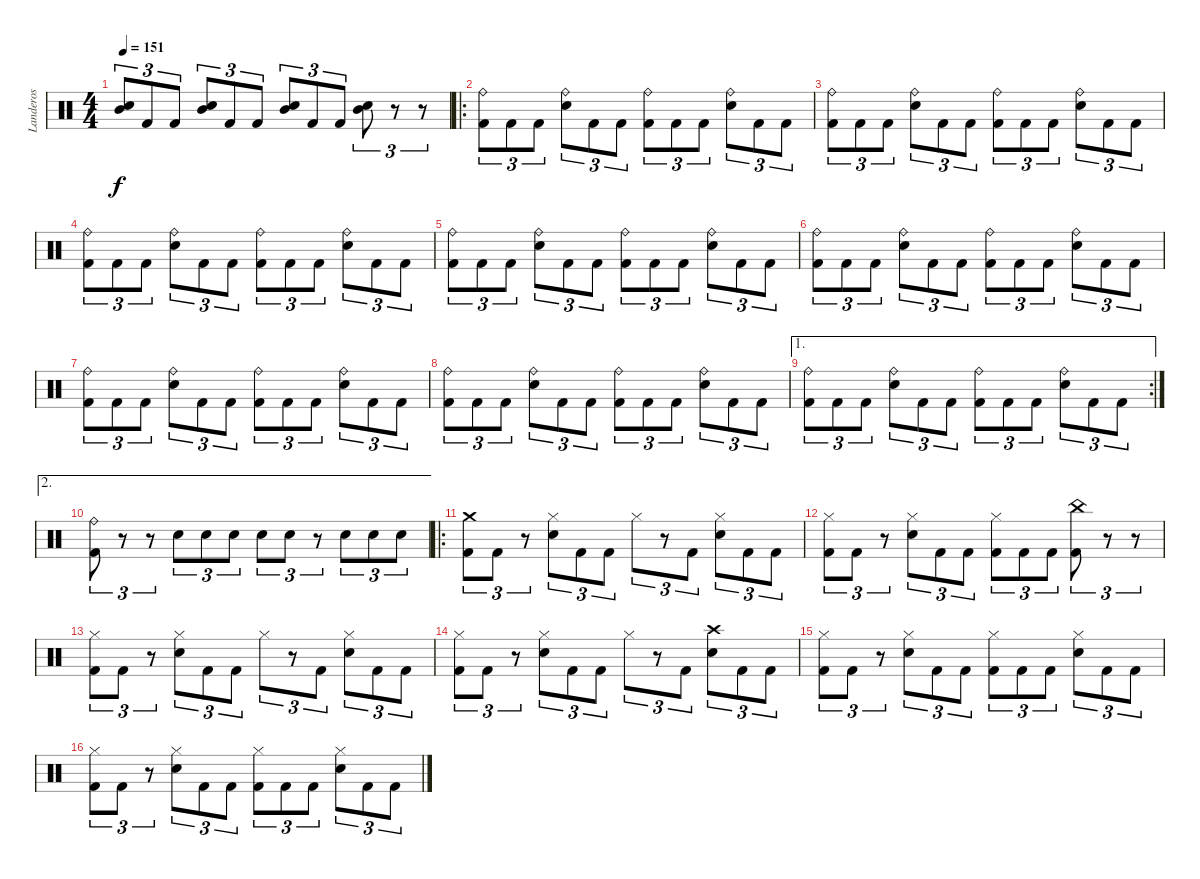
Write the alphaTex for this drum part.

\track ("Landeros" "Landeros") {instrument percussion}
\staff {score}
\articulation defaults
\ts (4 4)
\tempo 151
\clef neutral
\ks c
("Electric Snare (hit)" "Mid Tom (hit)").8{tu (3 2) dy f} "Kick (hit) 2".8{tu (3 2)} "Kick (hit) 2".8{tu (3 2)} ("Electric Snare (hit)" "Mid Tom (hit)").8{tu (3 2)} "Kick (hit) 2".8{tu (3 2)} "Kick (hit) 2".8{tu (3 2)} ("Electric Snare (hit)" "Mid Tom (hit)").8{tu (3 2)} "Kick (hit) 2".8{tu (3 2)} "Kick (hit) 2".8{tu (3 2)} ("Electric Snare (hit)" "Mid Tom (hit)").8{tu (3 2)} r.8{tu (3 2)} r.8{tu (3 2)} |
\ro
("Kick (hit) 2" "Ride (bell)").8{tu (3 2)} "Kick (hit) 2".8{tu (3 2)} "Kick (hit) 2".8{tu (3 2)} ("Electric Snare (hit)" "Ride (bell)").8{tu (3 2)} "Kick (hit) 2".8{tu (3 2)} "Kick (hit) 2".8{tu (3 2)} ("Kick (hit) 2" "Ride (bell)").8{tu (3 2)} "Kick (hit) 2".8{tu (3 2)} "Kick (hit) 2".8{tu (3 2)} ("Electric Snare (hit)" "Ride (bell)").8{tu (3 2)} "Kick (hit) 2".8{tu (3 2)} "Kick (hit) 2".8{tu (3 2)} |
("Kick (hit) 2" "Ride (bell)").8{tu (3 2)} "Kick (hit) 2".8{tu (3 2)} "Kick (hit) 2".8{tu (3 2)} ("Electric Snare (hit)" "Ride (bell)").8{tu (3 2)} "Kick (hit) 2".8{tu (3 2)} "Kick (hit) 2".8{tu (3 2)} ("Kick (hit) 2" "Ride (bell)").8{tu (3 2)} "Kick (hit) 2".8{tu (3 2)} "Kick (hit) 2".8{tu (3 2)} ("Electric Snare (hit)" "Ride (bell)").8{tu (3 2)} "Kick (hit) 2".8{tu (3 2)} "Kick (hit) 2".8{tu (3 2)} |
("Kick (hit) 2" "Ride (bell)").8{tu (3 2)} "Kick (hit) 2".8{tu (3 2)} "Kick (hit) 2".8{tu (3 2)} ("Electric Snare (hit)" "Ride (bell)").8{tu (3 2)} "Kick (hit) 2".8{tu (3 2)} "Kick (hit) 2".8{tu (3 2)} ("Kick (hit) 2" "Ride (bell)").8{tu (3 2)} "Kick (hit) 2".8{tu (3 2)} "Kick (hit) 2".8{tu (3 2)} ("Electric Snare (hit)" "Ride (bell)").8{tu (3 2)} "Kick (hit) 2".8{tu (3 2)} "Kick (hit) 2".8{tu (3 2)} |
("Kick (hit) 2" "Ride (bell)").8{tu (3 2)} "Kick (hit) 2".8{tu (3 2)} "Kick (hit) 2".8{tu (3 2)} ("Electric Snare (hit)" "Ride (bell)").8{tu (3 2)} "Kick (hit) 2".8{tu (3 2)} "Kick (hit) 2".8{tu (3 2)} ("Kick (hit) 2" "Ride (bell)").8{tu (3 2)} "Kick (hit) 2".8{tu (3 2)} "Kick (hit) 2".8{tu (3 2)} ("Electric Snare (hit)" "Ride (bell)").8{tu (3 2)} "Kick (hit) 2".8{tu (3 2)} "Kick (hit) 2".8{tu (3 2)} |
("Kick (hit) 2" "Ride (bell)").8{tu (3 2)} "Kick (hit) 2".8{tu (3 2)} "Kick (hit) 2".8{tu (3 2)} ("Electric Snare (hit)" "Ride (bell)").8{tu (3 2)} "Kick (hit) 2".8{tu (3 2)} "Kick (hit) 2".8{tu (3 2)} ("Kick (hit) 2" "Ride (bell)").8{tu (3 2)} "Kick (hit) 2".8{tu (3 2)} "Kick (hit) 2".8{tu (3 2)} ("Electric Snare (hit)" "Ride (bell)").8{tu (3 2)} "Kick (hit) 2".8{tu (3 2)} "Kick (hit) 2".8{tu (3 2)} |
("Kick (hit) 2" "Ride (bell)").8{tu (3 2)} "Kick (hit) 2".8{tu (3 2)} "Kick (hit) 2".8{tu (3 2)} ("Electric Snare (hit)" "Ride (bell)").8{tu (3 2)} "Kick (hit) 2".8{tu (3 2)} "Kick (hit) 2".8{tu (3 2)} ("Kick (hit) 2" "Ride (bell)").8{tu (3 2)} "Kick (hit) 2".8{tu (3 2)} "Kick (hit) 2".8{tu (3 2)} ("Electric Snare (hit)" "Ride (bell)").8{tu (3 2)} "Kick (hit) 2".8{tu (3 2)} "Kick (hit) 2".8{tu (3 2)} |
("Kick (hit) 2" "Ride (bell)").8{tu (3 2)} "Kick (hit) 2".8{tu (3 2)} "Kick (hit) 2".8{tu (3 2)} ("Electric Snare (hit)" "Ride (bell)").8{tu (3 2)} "Kick (hit) 2".8{tu (3 2)} "Kick (hit) 2".8{tu (3 2)} ("Kick (hit) 2" "Ride (bell)").8{tu (3 2)} "Kick (hit) 2".8{tu (3 2)} "Kick (hit) 2".8{tu (3 2)} ("Electric Snare (hit)" "Ride (bell)").8{tu (3 2)} "Kick (hit) 2".8{tu (3 2)} "Kick (hit) 2".8{tu (3 2)} |
\ae 1
\rc 2
("Kick (hit) 2" "Ride (bell)").8{tu (3 2)} "Kick (hit) 2".8{tu (3 2)} "Kick (hit) 2".8{tu (3 2)} ("Electric Snare (hit)" "Ride (bell)").8{tu (3 2)} "Kick (hit) 2".8{tu (3 2)} "Kick (hit) 2".8{tu (3 2)} ("Kick (hit) 2" "Ride (bell)").8{tu (3 2)} "Kick (hit) 2".8{tu (3 2)} "Kick (hit) 2".8{tu (3 2)} ("Electric Snare (hit)" "Ride (bell)").8{tu (3 2)} "Kick (hit) 2".8{tu (3 2)} "Kick (hit) 2".8{tu (3 2)} |
\ae 2
("Kick (hit) 2" "Ride (bell)").8{tu (3 2)} r.8{tu (3 2)} r.8{tu (3 2)} "Electric Snare (hit)".8{tu (3 2)} "Electric Snare (hit)".8{tu (3 2)} "Electric Snare (hit)".8{tu (3 2)} "Electric Snare (hit)".8{tu (3 2)} "Electric Snare (hit)".8{tu (3 2)} r.8{tu (3 2)} "Electric Snare (hit)".8{tu (3 2)} "Electric Snare (hit)".8{tu (3 2)} "Electric Snare (hit)".8{tu (3 2)} |
\ro
("Kick (hit) 2" "Crash medium (hit)").8{tu (3 2)} "Kick (hit) 2".8{tu (3 2)} r.8{tu (3 2)} ("Electric Snare (hit)" "Hi-Hat (closed)").8{tu (3 2)} "Kick (hit) 2".8{tu (3 2)} "Kick (hit) 2".8{tu (3 2)} "Hi-Hat (closed)".8{tu (3 2)} r.8{tu (3 2)} "Kick (hit) 2".8{tu (3 2)} ("Electric Snare (hit)" "Hi-Hat (closed)").8{tu (3 2)} "Kick (hit) 2".8{tu (3 2)} "Kick (hit) 2".8{tu (3 2)} |
("Kick (hit) 2" "Hi-Hat (closed)").8{tu (3 2)} "Kick (hit) 2".8{tu (3 2)} r.8{tu (3 2)} ("Electric Snare (hit)" "Hi-Hat (closed)").8{tu (3 2)} "Kick (hit) 2".8{tu (3 2)} "Kick (hit) 2".8{tu (3 2)} ("Kick (hit) 2" "Hi-Hat (closed)").8{tu (3 2)} "Kick (hit) 2".8{tu (3 2)} "Kick (hit) 2".8{tu (3 2)} ("Kick (hit) 2" "China (hit)").8{tu (3 2)} r.8{tu (3 2)} r.8{tu (3 2)} |
("Kick (hit) 2" "Hi-Hat (closed)").8{tu (3 2)} "Kick (hit) 2".8{tu (3 2)} r.8{tu (3 2)} ("Electric Snare (hit)" "Hi-Hat (closed)").8{tu (3 2)} "Kick (hit) 2".8{tu (3 2)} "Kick (hit) 2".8{tu (3 2)} "Hi-Hat (closed)".8{tu (3 2)} r.8{tu (3 2)} "Kick (hit) 2".8{tu (3 2)} ("Electric Snare (hit)" "Hi-Hat (closed)").8{tu (3 2)} "Kick (hit) 2".8{tu (3 2)} "Kick (hit) 2".8{tu (3 2)} |
("Kick (hit) 2" "Hi-Hat (closed)").8{tu (3 2)} "Kick (hit) 2".8{tu (3 2)} r.8{tu (3 2)} ("Electric Snare (hit)" "Hi-Hat (closed)").8{tu (3 2)} "Kick (hit) 2".8{tu (3 2)} "Kick (hit) 2".8{tu (3 2)} "Hi-Hat (closed)".8{tu (3 2)} r.8{tu (3 2)} "Kick (hit) 2".8{tu (3 2)} ("Electric Snare (hit)" "Crash high (hit)").8{tu (3 2)} "Kick (hit) 2".8{tu (3 2)} "Kick (hit) 2".8{tu (3 2)} |
("Kick (hit) 2" "Hi-Hat (closed)").8{tu (3 2)} "Kick (hit) 2".8{tu (3 2)} r.8{tu (3 2)} ("Electric Snare (hit)" "Hi-Hat (closed)").8{tu (3 2)} "Kick (hit) 2".8{tu (3 2)} "Kick (hit) 2".8{tu (3 2)} ("Kick (hit) 2" "Hi-Hat (closed)").8{tu (3 2)} "Kick (hit) 2".8{tu (3 2)} "Kick (hit) 2".8{tu (3 2)} ("Electric Snare (hit)" "Hi-Hat (closed)").8{tu (3 2)} "Kick (hit) 2".8{tu (3 2)} "Kick (hit) 2".8{tu (3 2)} |
("Kick (hit) 2" "Hi-Hat (closed)").8{tu (3 2)} "Kick (hit) 2".8{tu (3 2)} r.8{tu (3 2)} ("Electric Snare (hit)" "Hi-Hat (closed)").8{tu (3 2)} "Kick (hit) 2".8{tu (3 2)} "Kick (hit) 2".8{tu (3 2)} ("Kick (hit) 2" "Hi-Hat (closed)").8{tu (3 2)} "Kick (hit) 2".8{tu (3 2)} "Kick (hit) 2".8{tu (3 2)} ("Electric Snare (hit)" "Hi-Hat (closed)").8{tu (3 2)} "Kick (hit) 2".8{tu (3 2)} "Kick (hit) 2".8{tu (3 2)}
